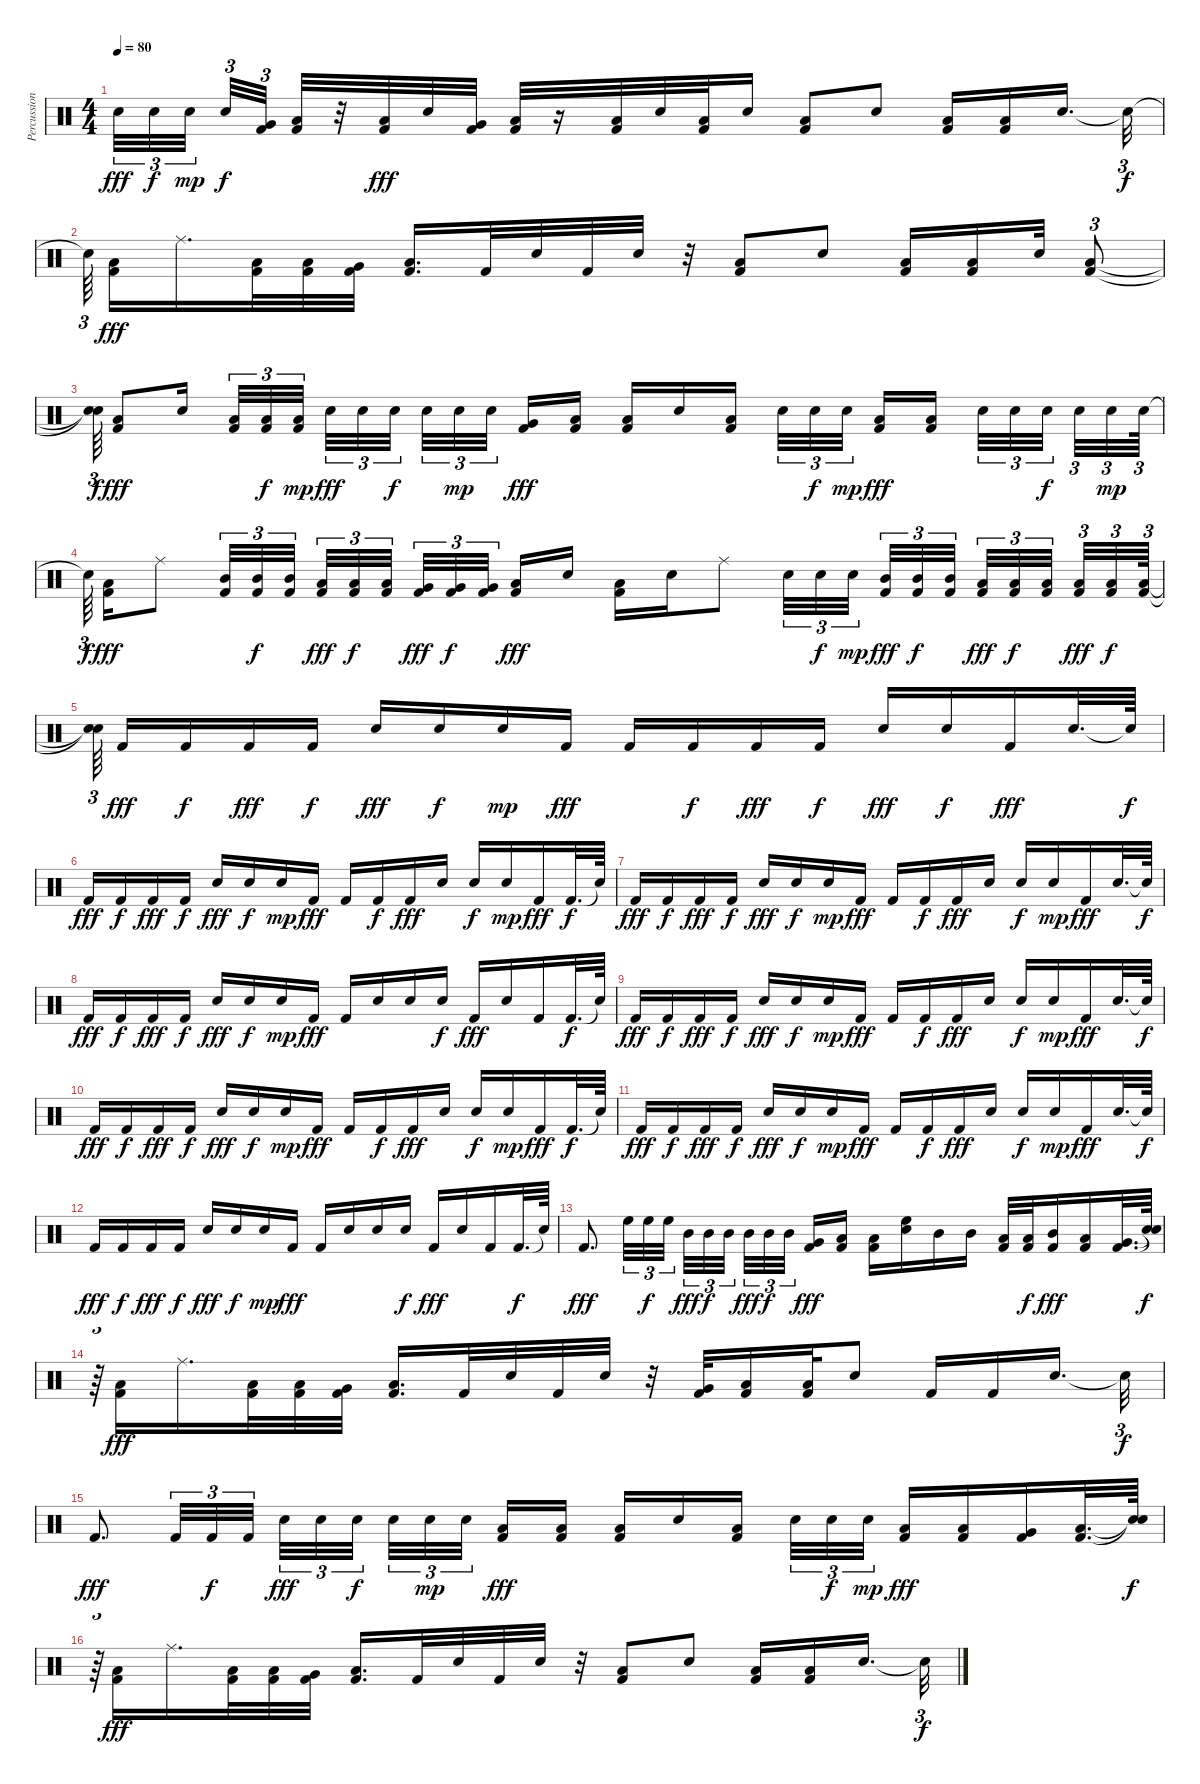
\track ("Percussion2" "Percussion") {instrument percussion}
\staff {score}
\articulation defaults
\ts (4 4)
\tempo 80
\clef neutral
\ks c "Snare (hit) 2".32{tu (3 2) dy fff} "Snare (hit) 2".32{tu (3 2) dy f} "Snare (hit) 2".32{tu (3 2) dy mp beam splitsecondary} "Snare (hit) 2".32{tu (3 2) dy f}
("Kick (hit) 2" "Very Low Tom (hit)").32{tu (3 2) beam splitsecondary} ("Kick (hit) 2" "Low Floor Tom (hit)").32 r.32 ("Kick (hit) 2" "Low Floor Tom (hit)").32{dy fff} "Snare (hit) 2".32 ("Kick (hit) 2" "Very Low Tom (hit)").32 ("Kick (hit) 2" "Low Floor Tom (hit)").32 r.16 ("Kick (hit) 2" "Low Floor Tom (hit)").32 "Snare (hit) 2".32 ("Kick (hit) 2" "Low Floor Tom (hit)").32 "Snare (hit) 2".16 ("Kick (hit) 2" "Low Floor Tom (hit)").8 "Snare (hit) 2".8 ("Kick (hit) 2" "Low Floor Tom (hit)").16 ("Kick (hit) 2" "Low Floor Tom (hit)").16 "Snare (hit) 2".16{d beam splitsecondary} "Snare (hit)"{t}.32{tu (3 2) dy f} |
"Snare (hit)"{t}.64{tu (3 2) beam splitsecondary} ("Kick (hit) 2" "Low Floor Tom (hit)").16{dy fff} "Ride (middle)".16{d} ("Kick (hit) 2" "Low Floor Tom (hit)").32 ("Kick (hit) 2" "Low Tom (hit)").32 ("Kick (hit) 2" "Very Low Tom (hit)").32 ("Kick (hit) 2" "Low Floor Tom (hit)").16{d} "Kick (hit) 2".32 "Snare (hit) 2".32 "Kick (hit) 2".32 "Snare (hit) 2".32 r.32 ("Kick (hit) 2" "Low Floor Tom (hit)").8 "Snare (hit) 2".8 ("Kick (hit) 2" "Low Floor Tom (hit)").16 ("Kick (hit) 2" "Low Floor Tom (hit)").16 "Snare (hit) 2".32 ("Kick (hit) 2" "Low Floor Tom (hit)").8{tu (3 2)} |
("Snare (hit)"{t} "Snare (hit)"{t}).64{tu (3 2) dy f} ("Kick (hit) 2" "Low Floor Tom (hit)").8{dy fff} "Snare (hit) 2".16{beam splitsecondary} ("Kick (hit) 2" "Low Floor Tom (hit)").32{tu (3 2)} ("Kick (hit) 2" "Low Floor Tom (hit)").32{tu (3 2) dy f} ("Kick (hit) 2" "Low Floor Tom (hit)").32{tu (3 2) dy mp} "Snare (hit) 2".32{tu (3 2) dy fff} "Snare (hit) 2".32{tu (3 2)} "Snare (hit) 2".32{tu (3 2) dy f beam splitsecondary} "Snare (hit) 2".32{tu (3 2)} "Snare (hit) 2".32{tu (3 2) dy mp} "Snare (hit) 2".32{tu (3 2) beam splitsecondary} ("Kick (hit) 2" "Very Low Tom (hit)").16{dy fff} ("Kick (hit) 2" "Low Floor Tom (hit)").16 ("Kick (hit) 2" "Low Floor Tom (hit)").16 "Snare (hit) 2".16 ("Kick (hit) 2" "Low Floor Tom (hit)").16{beam splitsecondary} "Snare (hit) 2".32{tu (3 2)} "Snare (hit) 2".32{tu (3 2) dy f} "Snare (hit) 2".32{tu (3 2) dy mp} ("Kick (hit) 2" "Low Floor Tom (hit)").16{dy fff} ("Kick (hit) 2" "Low Tom (hit)").16{beam splitsecondary} "Snare (hit) 2".32{tu (3 2)} "Snare (hit) 2".32{tu (3 2)} "Snare (hit) 2".32{tu (3 2) dy f beam splitsecondary} "Snare (hit) 2".32{tu (3 2)} "Snare (hit) 2".32{tu (3 2) dy mp} "Snare (hit) 2".64{tu (3 2)} |
"Snare (hit)"{t}.64{tu (3 2) dy f beam splitsecondary} ("Kick (hit) 2" "Low Floor Tom (hit)").16{dy fff} "Ride (middle)".8 ("Kick (hit) 2" "Mid Tom (hit)").32{tu (3 2)} ("Kick (hit) 2" "Mid Tom (hit)").32{tu (3 2) dy f} ("Kick (hit) 2" "Mid Tom (hit)").32{tu (3 2)} ("Kick (hit) 2" "Low Tom (hit)").32{tu (3 2) dy fff} ("Kick (hit) 2" "Low Tom (hit)").32{tu (3 2) dy f} ("Kick (hit) 2" "Low Tom (hit)").32{tu (3 2) beam splitsecondary} ("Kick (hit) 2" "Very Low Tom (hit)").32{tu (3 2) dy fff} ("Kick (hit) 2" "Very Low Tom (hit)").32{tu (3 2) dy f} ("Kick (hit) 2" "Very Low Tom (hit)").32{tu (3 2) beam splitsecondary} ("Kick (hit) 2" "Low Floor Tom (hit)").16{dy fff} "Snare (hit) 2".16 ("Kick (hit) 2" "Low Floor Tom (hit)").16 "Snare (hit) 2".16 "Ride (middle)".8 "Snare (hit) 2".32{tu (3 2)} "Snare (hit) 2".32{tu (3 2) dy f} "Snare (hit) 2".32{tu (3 2) dy mp beam splitsecondary} ("Kick (hit) 2" "Mid Tom (hit)").32{tu (3 2) dy fff} ("Kick (hit) 2" "Mid Tom (hit)").32{tu (3 2) dy f} ("Kick (hit) 2" "Mid Tom (hit)").32{tu (3 2) beam splitsecondary} ("Kick (hit) 2" "Low Tom (hit)").32{tu (3 2) dy fff} ("Kick (hit) 2" "Low Tom (hit)").32{tu (3 2) dy f} ("Kick (hit) 2" "Low Tom (hit)").32{tu (3 2) beam splitsecondary} ("Kick (hit) 2" "Low Floor Tom (hit)").32{tu (3 2) dy fff} ("Kick (hit) 2" "Low Floor Tom (hit)").32{tu (3 2) dy f} ("Kick (hit) 2" "Low Floor Tom (hit)").64{tu (3 2)} |
("Snare (hit)"{t} "Snare (hit)"{t}).64{tu (3 2) beam splitsecondary} "Kick (hit) 2".16{dy fff} "Kick (hit) 2".16{dy f} "Kick (hit) 2".16{dy fff} "Kick (hit) 2".16{dy f} "Snare (hit) 2".16{dy fff} "Snare (hit) 2".16{dy f} "Snare (hit) 2".16{dy mp} "Kick (hit) 2".16{dy fff} "Kick (hit) 2".16 "Kick (hit) 2".16{dy f} "Kick (hit) 2".16{dy fff} "Kick (hit) 2".16{dy f} "Snare (hit) 2".16{dy fff} "Snare (hit) 2".16{dy f} "Kick (hit) 2".16{dy fff} "Snare (hit) 2".32{d} "Snare (hit)"{t}.64{dy f} |
"Kick (hit) 2".16{dy fff} "Kick (hit) 2".16{dy f} "Kick (hit) 2".16{dy fff} "Kick (hit) 2".16{dy f} "Snare (hit) 2".16{dy fff} "Snare (hit) 2".16{dy f} "Snare (hit) 2".16{dy mp} "Kick (hit) 2".16{dy fff} "Kick (hit) 2".16 "Kick (hit) 2".16{dy f} "Kick (hit) 2".16{dy fff} "Snare (hit) 2".16 "Snare (hit) 2".16{dy f} "Snare (hit) 2".16{dy mp} "Kick (hit) 2".16{dy fff} "Kick (hit) 2".32{d dy f} "Snare (hit)"{t}.64 |
"Kick (hit) 2".16{dy fff} "Kick (hit) 2".16{dy f} "Kick (hit) 2".16{dy fff} "Kick (hit) 2".16{dy f} "Snare (hit) 2".16{dy fff} "Snare (hit) 2".16{dy f} "Snare (hit) 2".16{dy mp} "Kick (hit) 2".16{dy fff} "Kick (hit) 2".16 "Kick (hit) 2".16{dy f} "Kick (hit) 2".16{dy fff} "Snare (hit) 2".16 "Snare (hit) 2".16{dy f} "Snare (hit) 2".16{dy mp} "Kick (hit) 2".16{dy fff} "Snare (hit) 2".32{d} "Snare (hit)"{t}.64{dy f} |
"Kick (hit) 2".16{dy fff} "Kick (hit) 2".16{dy f} "Kick (hit) 2".16{dy fff} "Kick (hit) 2".16{dy f} "Snare (hit) 2".16{dy fff} "Snare (hit) 2".16{dy f} "Snare (hit) 2".16{dy mp} "Kick (hit) 2".16{dy fff} "Kick (hit) 2".16 "Snare (hit) 2".16 "Snare (hit) 2".16 "Snare (hit) 2".16{dy f} "Kick (hit) 2".16{dy fff} "Snare (hit) 2".16 "Kick (hit) 2".16 "Kick (hit) 2".32{d dy f} "Snare (hit)"{t}.64 |
"Kick (hit) 2".16{dy fff} "Kick (hit) 2".16{dy f} "Kick (hit) 2".16{dy fff} "Kick (hit) 2".16{dy f} "Snare (hit) 2".16{dy fff} "Snare (hit) 2".16{dy f} "Snare (hit) 2".16{dy mp} "Kick (hit) 2".16{dy fff} "Kick (hit) 2".16 "Kick (hit) 2".16{dy f} "Kick (hit) 2".16{dy fff} "Snare (hit) 2".16 "Snare (hit) 2".16{dy f} "Snare (hit) 2".16{dy mp} "Kick (hit) 2".16{dy fff} "Snare (hit) 2".32{d} "Snare (hit)"{t}.64{dy f} |
"Kick (hit) 2".16{dy fff} "Kick (hit) 2".16{dy f} "Kick (hit) 2".16{dy fff} "Kick (hit) 2".16{dy f} "Snare (hit) 2".16{dy fff} "Snare (hit) 2".16{dy f} "Snare (hit) 2".16{dy mp} "Kick (hit) 2".16{dy fff} "Kick (hit) 2".16 "Kick (hit) 2".16{dy f} "Kick (hit) 2".16{dy fff} "Snare (hit) 2".16 "Snare (hit) 2".16{dy f} "Snare (hit) 2".16{dy mp} "Kick (hit) 2".16{dy fff} "Kick (hit) 2".32{d dy f} "Snare (hit)"{t}.64 |
"Kick (hit) 2".16{dy fff} "Kick (hit) 2".16{dy f} "Kick (hit) 2".16{dy fff} "Kick (hit) 2".16{dy f} "Snare (hit) 2".16{dy fff} "Snare (hit) 2".16{dy f} "Snare (hit) 2".16{dy mp} "Kick (hit) 2".16{dy fff} "Kick (hit) 2".16 "Kick (hit) 2".16{dy f} "Kick (hit) 2".16{dy fff} "Snare (hit) 2".16 "Snare (hit) 2".16{dy f} "Snare (hit) 2".16{dy mp} "Kick (hit) 2".16{dy fff} "Snare (hit) 2".32{d} "Snare (hit)"{t}.64{dy f} |
"Kick (hit) 2".16{dy fff} "Kick (hit) 2".16{dy f} "Kick (hit) 2".16{dy fff} "Kick (hit) 2".16{dy f} "Snare (hit) 2".16{dy fff} "Snare (hit) 2".16{dy f} "Snare (hit) 2".16{dy mp} "Kick (hit) 2".16{dy fff} "Kick (hit) 2".16 "Snare (hit) 2".16 "Snare (hit) 2".16 "Snare (hit) 2".16{dy f} "Kick (hit) 2".16{dy fff} "Snare (hit) 2".16 "Kick (hit) 2".16 "Kick (hit) 2".32{d dy f} "Snare (hit)"{t}.64 |
"Kick (hit) 2".8{d dy fff} "High Floor Tom (hit)".32{tu (3 2)} "High Floor Tom (hit)".32{tu (3 2) dy f} "High Floor Tom (hit)".32{tu (3 2)} "Mid Tom (hit)".32{tu (3 2) dy fff} "Mid Tom (hit)".32{tu (3 2) dy f} "Mid Tom (hit)".32{tu (3 2) beam splitsecondary} "Mid Tom (hit)".32{tu (3 2) dy fff} "Mid Tom (hit)".32{tu (3 2) dy f} "Mid Tom (hit)".32{tu (3 2) beam splitsecondary} ("Kick (hit) 2" "Very Low Tom (hit)").16{dy fff} ("Kick (hit) 2" "Low Floor Tom (hit)").16 ("Kick (hit) 2" "Low Floor Tom (hit)").16 ("Snare (hit) 2" "High Floor Tom (hit)").16 "Mid Tom (hit)".16 "Mid Tom (hit)".16 ("Kick (hit) 2" "Low Floor Tom (hit)").32 ("Kick (hit) 2" "Low Floor Tom (hit)").32{dy f} ("Kick (hit) 2" "Mid Tom (hit)").16{dy fff} ("Kick (hit) 2" "Low Tom (hit)").16 ("Kick (hit) 2" "Very Low Tom (hit)").32{d} ("Snare (hit)"{t} "Snare (hit)"{t}).64{dy f} |
r.64{tu (3 2)} ("Kick (hit) 2" "Low Floor Tom (hit)").16{dy fff} "Ride (middle)".16{d} ("Kick (hit) 2" "Low Floor Tom (hit)").32 ("Kick (hit) 2" "Low Tom (hit)").32 ("Kick (hit) 2" "Very Low Tom (hit)").32 ("Kick (hit) 2" "Low Floor Tom (hit)").16{d} "Kick (hit) 2".32 "Snare (hit) 2".32 "Kick (hit) 2".32 "Snare (hit) 2".32 r.32 ("Kick (hit) 2" "Very Low Tom (hit)").32 ("Kick (hit) 2" "Low Floor Tom (hit)").16 ("Kick (hit) 2" "Low Floor Tom (hit)").32 "Snare (hit) 2".8 "Kick (hit) 2".16 "Kick (hit) 2".16 "Snare (hit) 2".16{d beam splitsecondary} "Snare (hit)"{t}.32{tu (3 2) dy f} |
"Kick (hit) 2".8{d dy fff} "Kick (hit) 2".32{tu (3 2)} "Kick (hit) 2".32{tu (3 2) dy f} "Kick (hit) 2".32{tu (3 2)} "Snare (hit) 2".32{tu (3 2) dy fff} "Snare (hit) 2".32{tu (3 2)} "Snare (hit) 2".32{tu (3 2) dy f beam splitsecondary} "Snare (hit) 2".32{tu (3 2)} "Snare (hit) 2".32{tu (3 2) dy mp} "Snare (hit) 2".32{tu (3 2) beam splitsecondary} ("Kick (hit) 2" "Low Floor Tom (hit)").16{dy fff} ("Kick (hit) 2" "Low Floor Tom (hit)").16 ("Kick (hit) 2" "Low Floor Tom (hit)").16 "Snare (hit) 2".16 ("Kick (hit) 2" "Low Tom (hit)").16{beam splitsecondary} "Snare (hit) 2".32{tu (3 2)} "Snare (hit) 2".32{tu (3 2) dy f} "Snare (hit) 2".32{tu (3 2) dy mp} ("Kick (hit) 2" "Low Floor Tom (hit)").16{dy fff} ("Kick (hit) 2" "Low Tom (hit)").16 ("Kick (hit) 2" "Very Low Tom (hit)").16 ("Kick (hit) 2" "Low Floor Tom (hit)").32{d} ("Snare (hit)"{t} "Snare (hit)"{t}).64{dy f} |
r.64{tu (3 2)} ("Kick (hit) 2" "Low Floor Tom (hit)").16{dy fff} "Ride (middle)".16{d} ("Kick (hit) 2" "Low Floor Tom (hit)").32 ("Kick (hit) 2" "Low Tom (hit)").32 ("Kick (hit) 2" "Very Low Tom (hit)").32 ("Kick (hit) 2" "Low Floor Tom (hit)").16{d} "Kick (hit) 2".32 "Snare (hit) 2".32 "Kick (hit) 2".32 "Snare (hit) 2".32 r.32 ("Kick (hit) 2" "Low Floor Tom (hit)").8 "Snare (hit) 2".8 ("Kick (hit) 2" "Low Floor Tom (hit)").16 ("Kick (hit) 2" "Low Floor Tom (hit)").16 "Snare (hit) 2".16{d beam splitsecondary} "Snare (hit)"{t}.32{tu (3 2) dy f}
